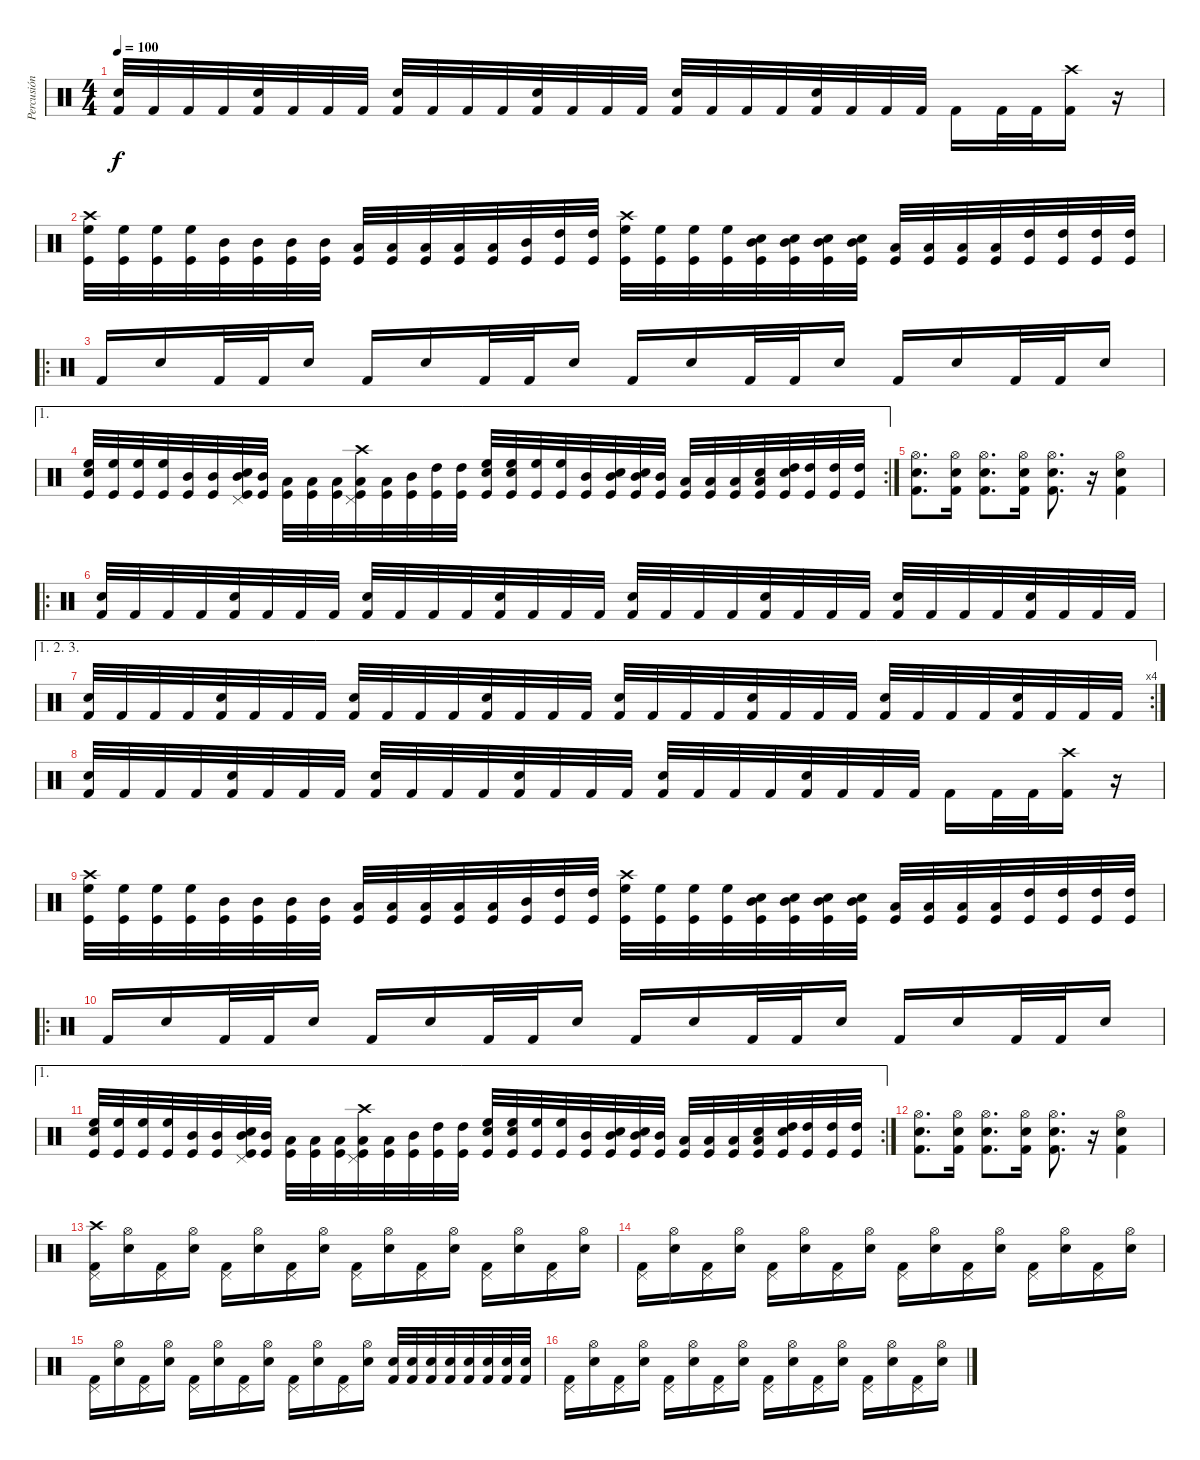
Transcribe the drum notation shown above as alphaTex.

\track ("Percusión" "Percusión") {instrument percussion}
\staff {score}
\articulation defaults
\ts (4 4)
\tempo 100
\clef neutral
\ks c
("Snare (hit) 2" "Kick (hit) 2").32{dy f} "Kick (hit) 2".32 "Kick (hit) 2".32 "Kick (hit) 2".32 ("Snare (hit) 2" "Kick (hit) 2").32 "Kick (hit) 2".32 "Kick (hit) 2".32 "Kick (hit) 2".32 ("Snare (hit) 2" "Kick (hit) 2").32 "Kick (hit) 2".32 "Kick (hit) 2".32 "Kick (hit) 2".32 ("Snare (hit) 2" "Kick (hit) 2").32 "Kick (hit) 2".32 "Kick (hit) 2".32 "Kick (hit) 2".32 ("Snare (hit) 2" "Kick (hit) 2").32 "Kick (hit) 2".32 "Kick (hit) 2".32 "Kick (hit) 2".32 ("Snare (hit) 2" "Kick (hit) 2").32 "Kick (hit) 2".32 "Kick (hit) 2".32 "Kick (hit) 2".32 "Kick (hit) 2".16 "Kick (hit) 2".32 "Kick (hit) 2".32 ("Crash high (hit)" "Kick (hit) 2").16 r.16 |
("Crash high (hit)" "Kick (hit)" "High Floor Tom (hit)").32 ("Kick (hit)" "High Floor Tom (hit)").32 ("Kick (hit)" "High Floor Tom (hit)").32 ("Kick (hit)" "High Floor Tom (hit)").32 ("Kick (hit)" "Mid Tom (hit)").32 ("Kick (hit)" "Mid Tom (hit)").32 ("Kick (hit)" "Mid Tom (hit)").32 ("Kick (hit)" "Mid Tom (hit)").32 ("Kick (hit)" "Low Tom (hit)").32 ("Kick (hit)" "Low Tom (hit)").32 ("Kick (hit)" "Low Tom (hit)").32 ("Kick (hit)" "Low Tom (hit)").32 ("Kick (hit)" "Low Tom (hit)").32 ("Kick (hit)" "Mid Tom (hit)").32 ("Kick (hit)" "High Tom (hit)").32 ("Kick (hit)" "High Tom (hit)").32 ("Crash high (hit)" "Kick (hit)" "High Floor Tom (hit)").32 ("Kick (hit)" "High Floor Tom (hit)").32 ("Kick (hit)" "High Floor Tom (hit)").32 ("Kick (hit)" "High Floor Tom (hit)").32 ("Snare (hit) 2" "Kick (hit)" "Mid Tom (hit)").32 ("Snare (hit) 2" "Kick (hit)" "Mid Tom (hit)").32 ("Snare (hit) 2" "Kick (hit)" "Mid Tom (hit)").32 ("Snare (hit) 2" "Kick (hit)" "Mid Tom (hit)").32 ("Kick (hit)" "Low Tom (hit)").32 ("Kick (hit)" "Low Tom (hit)").32 ("Kick (hit)" "Low Tom (hit)").32 ("Kick (hit)" "Low Tom (hit)").32 ("Kick (hit)" "High Tom (hit)").32 ("Kick (hit)" "High Tom (hit)").32 ("Kick (hit)" "High Tom (hit)").32 ("Kick (hit)" "High Tom (hit)").32 |
\ro "Kick (hit) 2".16 "Snare (hit) 2".16 "Kick (hit) 2".32 "Kick (hit) 2".32 "Snare (hit) 2".16 "Kick (hit) 2".16 "Snare (hit) 2".16 "Kick (hit) 2".32 "Kick (hit) 2".32 "Snare (hit) 2".16 "Kick (hit) 2".16 "Snare (hit) 2".16 "Kick (hit) 2".32 "Kick (hit) 2".32 "Snare (hit) 2".16 "Kick (hit) 2".16 "Snare (hit) 2".16 "Kick (hit) 2".32 "Kick (hit) 2".32 "Snare (hit) 2".16
|
\ae 1
\rc 2
("Kick (hit)" "Snare (hit) 2" "High Floor Tom (hit)").32{volume 16} ("Kick (hit)" "High Floor Tom (hit)").32 ("Kick (hit)" "High Floor Tom (hit)").32 ("Kick (hit)" "High Floor Tom (hit)").32 ("Kick (hit)" "Mid Tom (hit)").32 ("Kick (hit)" "Mid Tom (hit)").32 ("Kick (hit)" "Snare (hit) 2" "Pedal Hi-Hat (hit)" "Mid Tom (hit)").32 ("Kick (hit)" "Mid Tom (hit)").32 ("Kick (hit)" "Low Tom (hit)").32 ("Kick (hit)" "Low Tom (hit)").32 ("Kick (hit)" "Low Tom (hit)").32 ("Kick (hit)" "Crash high (hit)" "Pedal Hi-Hat (hit)" "Low Tom (hit)").32 ("Kick (hit)" "Low Tom (hit)").32 ("Kick (hit)" "Mid Tom (hit)").32 ("Kick (hit)" "High Tom (hit)").32 ("Kick (hit)" "High Tom (hit)").32 ("Snare (hit) 2" "Kick (hit)" "High Floor Tom (hit)").32 ("Snare (hit) 2" "Kick (hit)" "High Floor Tom (hit)").32 ("Kick (hit)" "High Floor Tom (hit)").32 ("Kick (hit)" "High Floor Tom (hit)").32 ("Kick (hit)" "Mid Tom (hit)").32 ("Snare (hit) 2" "Kick (hit)" "Mid Tom (hit)").32 ("Snare (hit) 2" "Kick (hit)" "Mid Tom (hit)").32 ("Kick (hit)" "Mid Tom (hit)").32 ("Kick (hit)" "Low Tom (hit)").32 ("Kick (hit)" "Low Tom (hit)").32 ("Kick (hit)" "Low Tom (hit)").32 ("Snare (hit) 2" "Kick (hit)" "Low Tom (hit)").32 ("Snare (hit) 2" "Kick (hit)" "High Tom (hit)").32 ("Kick (hit)" "High Tom (hit)").32 ("Kick (hit)" "High Tom (hit)").32 ("Kick (hit)" "High Tom (hit)").32 |
("Hi-Hat (open)" "Snare (hit) 2" "Kick (hit) 2").8{d} ("Hi-Hat (open)" "Snare (hit) 2" "Kick (hit) 2").16 ("Hi-Hat (open)" "Snare (hit) 2" "Kick (hit) 2").8{d} ("Hi-Hat (open)" "Snare (hit) 2" "Kick (hit) 2").16 ("Hi-Hat (open)" "Snare (hit) 2" "Kick (hit) 2").8{d} r.16 ("Hi-Hat (open)" "Snare (hit) 2" "Kick (hit) 2").4 |
\ro
("Snare (hit) 2" "Kick (hit) 2").32 "Kick (hit) 2".32 "Kick (hit) 2".32 "Kick (hit) 2".32 ("Snare (hit) 2" "Kick (hit) 2").32 "Kick (hit) 2".32 "Kick (hit) 2".32 "Kick (hit) 2".32 ("Snare (hit) 2" "Kick (hit) 2").32 "Kick (hit) 2".32 "Kick (hit) 2".32 "Kick (hit) 2".32 ("Snare (hit) 2" "Kick (hit) 2").32 "Kick (hit) 2".32 "Kick (hit) 2".32 "Kick (hit) 2".32 ("Snare (hit) 2" "Kick (hit) 2").32 "Kick (hit) 2".32 "Kick (hit) 2".32 "Kick (hit) 2".32 ("Snare (hit) 2" "Kick (hit) 2").32 "Kick (hit) 2".32 "Kick (hit) 2".32 "Kick (hit) 2".32 ("Snare (hit) 2" "Kick (hit) 2").32 "Kick (hit) 2".32 "Kick (hit) 2".32 "Kick (hit) 2".32 ("Snare (hit) 2" "Kick (hit) 2").32 "Kick (hit) 2".32 "Kick (hit) 2".32 "Kick (hit) 2".32 |
\ae (1 2 3)
\rc 4
("Snare (hit) 2" "Kick (hit) 2").32 "Kick (hit) 2".32 "Kick (hit) 2".32 "Kick (hit) 2".32 ("Snare (hit) 2" "Kick (hit) 2").32 "Kick (hit) 2".32 "Kick (hit) 2".32 "Kick (hit) 2".32 ("Snare (hit) 2" "Kick (hit) 2").32 "Kick (hit) 2".32 "Kick (hit) 2".32 "Kick (hit) 2".32 ("Snare (hit) 2" "Kick (hit) 2").32 "Kick (hit) 2".32 "Kick (hit) 2".32 "Kick (hit) 2".32 ("Snare (hit) 2" "Kick (hit) 2").32 "Kick (hit) 2".32 "Kick (hit) 2".32 "Kick (hit) 2".32 ("Snare (hit) 2" "Kick (hit) 2").32 "Kick (hit) 2".32 "Kick (hit) 2".32 "Kick (hit) 2".32 ("Snare (hit) 2" "Kick (hit) 2").32 "Kick (hit) 2".32 "Kick (hit) 2".32 "Kick (hit) 2".32 ("Snare (hit) 2" "Kick (hit) 2").32 "Kick (hit) 2".32 "Kick (hit) 2".32 "Kick (hit) 2".32 |
("Snare (hit) 2" "Kick (hit) 2").32 "Kick (hit) 2".32 "Kick (hit) 2".32 "Kick (hit) 2".32 ("Snare (hit) 2" "Kick (hit) 2").32 "Kick (hit) 2".32 "Kick (hit) 2".32 "Kick (hit) 2".32 ("Snare (hit) 2" "Kick (hit) 2").32 "Kick (hit) 2".32 "Kick (hit) 2".32 "Kick (hit) 2".32 ("Snare (hit) 2" "Kick (hit) 2").32 "Kick (hit) 2".32 "Kick (hit) 2".32 "Kick (hit) 2".32 ("Snare (hit) 2" "Kick (hit) 2").32 "Kick (hit) 2".32 "Kick (hit) 2".32 "Kick (hit) 2".32 ("Snare (hit) 2" "Kick (hit) 2").32 "Kick (hit) 2".32 "Kick (hit) 2".32 "Kick (hit) 2".32 "Kick (hit) 2".16 "Kick (hit) 2".32 "Kick (hit) 2".32 ("Crash high (hit)" "Kick (hit) 2").16 r.16 |
("Crash high (hit)" "Kick (hit)" "High Floor Tom (hit)").32 ("Kick (hit)" "High Floor Tom (hit)").32 ("Kick (hit)" "High Floor Tom (hit)").32 ("Kick (hit)" "High Floor Tom (hit)").32 ("Kick (hit)" "Mid Tom (hit)").32 ("Kick (hit)" "Mid Tom (hit)").32 ("Kick (hit)" "Mid Tom (hit)").32 ("Kick (hit)" "Mid Tom (hit)").32 ("Kick (hit)" "Low Tom (hit)").32 ("Kick (hit)" "Low Tom (hit)").32 ("Kick (hit)" "Low Tom (hit)").32 ("Kick (hit)" "Low Tom (hit)").32 ("Kick (hit)" "Low Tom (hit)").32 ("Kick (hit)" "Mid Tom (hit)").32 ("Kick (hit)" "High Tom (hit)").32 ("Kick (hit)" "High Tom (hit)").32 ("Crash high (hit)" "Kick (hit)" "High Floor Tom (hit)").32 ("Kick (hit)" "High Floor Tom (hit)").32 ("Kick (hit)" "High Floor Tom (hit)").32 ("Kick (hit)" "High Floor Tom (hit)").32 ("Snare (hit) 2" "Kick (hit)" "Mid Tom (hit)").32 ("Snare (hit) 2" "Kick (hit)" "Mid Tom (hit)").32 ("Snare (hit) 2" "Kick (hit)" "Mid Tom (hit)").32 ("Snare (hit) 2" "Kick (hit)" "Mid Tom (hit)").32 ("Kick (hit)" "Low Tom (hit)").32 ("Kick (hit)" "Low Tom (hit)").32 ("Kick (hit)" "Low Tom (hit)").32 ("Kick (hit)" "Low Tom (hit)").32 ("Kick (hit)" "High Tom (hit)").32 ("Kick (hit)" "High Tom (hit)").32 ("Kick (hit)" "High Tom (hit)").32 ("Kick (hit)" "High Tom (hit)").32 |
\ro "Kick (hit) 2".16 "Snare (hit) 2".16 "Kick (hit) 2".32 "Kick (hit) 2".32 "Snare (hit) 2".16 "Kick (hit) 2".16 "Snare (hit) 2".16 "Kick (hit) 2".32 "Kick (hit) 2".32 "Snare (hit) 2".16 "Kick (hit) 2".16 "Snare (hit) 2".16 "Kick (hit) 2".32 "Kick (hit) 2".32 "Snare (hit) 2".16 "Kick (hit) 2".16 "Snare (hit) 2".16 "Kick (hit) 2".32 "Kick (hit) 2".32 "Snare (hit) 2".16
|
\ae 1
\rc 2
("Kick (hit)" "Snare (hit) 2" "High Floor Tom (hit)").32{volume 16} ("Kick (hit)" "High Floor Tom (hit)").32 ("Kick (hit)" "High Floor Tom (hit)").32 ("Kick (hit)" "High Floor Tom (hit)").32 ("Kick (hit)" "Mid Tom (hit)").32 ("Kick (hit)" "Mid Tom (hit)").32 ("Kick (hit)" "Snare (hit) 2" "Pedal Hi-Hat (hit)" "Mid Tom (hit)").32 ("Kick (hit)" "Mid Tom (hit)").32 ("Kick (hit)" "Low Tom (hit)").32 ("Kick (hit)" "Low Tom (hit)").32 ("Kick (hit)" "Low Tom (hit)").32 ("Kick (hit)" "Crash high (hit)" "Pedal Hi-Hat (hit)" "Low Tom (hit)").32 ("Kick (hit)" "Low Tom (hit)").32 ("Kick (hit)" "Mid Tom (hit)").32 ("Kick (hit)" "High Tom (hit)").32 ("Kick (hit)" "High Tom (hit)").32 ("Snare (hit) 2" "Kick (hit)" "High Floor Tom (hit)").32 ("Snare (hit) 2" "Kick (hit)" "High Floor Tom (hit)").32 ("Kick (hit)" "High Floor Tom (hit)").32 ("Kick (hit)" "High Floor Tom (hit)").32 ("Kick (hit)" "Mid Tom (hit)").32 ("Snare (hit) 2" "Kick (hit)" "Mid Tom (hit)").32 ("Snare (hit) 2" "Kick (hit)" "Mid Tom (hit)").32 ("Kick (hit)" "Mid Tom (hit)").32 ("Kick (hit)" "Low Tom (hit)").32 ("Kick (hit)" "Low Tom (hit)").32 ("Kick (hit)" "Low Tom (hit)").32 ("Snare (hit) 2" "Kick (hit)" "Low Tom (hit)").32 ("Snare (hit) 2" "Kick (hit)" "High Tom (hit)").32 ("Kick (hit)" "High Tom (hit)").32 ("Kick (hit)" "High Tom (hit)").32 ("Kick (hit)" "High Tom (hit)").32 |
("Hi-Hat (open)" "Snare (hit) 2" "Kick (hit) 2").8{d} ("Hi-Hat (open)" "Snare (hit) 2" "Kick (hit) 2").16 ("Hi-Hat (open)" "Snare (hit) 2" "Kick (hit) 2").8{d} ("Hi-Hat (open)" "Snare (hit) 2" "Kick (hit) 2").16 ("Hi-Hat (open)" "Snare (hit) 2" "Kick (hit) 2").8{d} r.16 ("Hi-Hat (open)" "Snare (hit) 2" "Kick (hit) 2").4 |
("Crash high (hit)" "Kick (hit) 2" "Pedal Hi-Hat (hit)").16 ("Snare (hit) 2" "Hi-Hat (open)").16 ("Kick (hit) 2" "Pedal Hi-Hat (hit)").16 ("Snare (hit) 2" "Hi-Hat (open)").16 ("Kick (hit) 2" "Pedal Hi-Hat (hit)").16 ("Snare (hit) 2" "Hi-Hat (open)").16 ("Kick (hit) 2" "Pedal Hi-Hat (hit)").16 ("Snare (hit) 2" "Hi-Hat (open)").16 ("Kick (hit) 2" "Pedal Hi-Hat (hit)").16 ("Snare (hit) 2" "Hi-Hat (open)").16 ("Kick (hit) 2" "Pedal Hi-Hat (hit)").16 ("Snare (hit) 2" "Hi-Hat (open)").16 ("Kick (hit) 2" "Pedal Hi-Hat (hit)").16 ("Snare (hit) 2" "Hi-Hat (open)").16 ("Kick (hit) 2" "Pedal Hi-Hat (hit)").16 ("Snare (hit) 2" "Hi-Hat (open)").16 |
("Kick (hit) 2" "Pedal Hi-Hat (hit)").16 ("Snare (hit) 2" "Hi-Hat (open)").16 ("Kick (hit) 2" "Pedal Hi-Hat (hit)").16 ("Snare (hit) 2" "Hi-Hat (open)").16 ("Kick (hit) 2" "Pedal Hi-Hat (hit)").16 ("Snare (hit) 2" "Hi-Hat (open)").16 ("Kick (hit) 2" "Pedal Hi-Hat (hit)").16 ("Snare (hit) 2" "Hi-Hat (open)").16 ("Kick (hit) 2" "Pedal Hi-Hat (hit)").16 ("Snare (hit) 2" "Hi-Hat (open)").16 ("Kick (hit) 2" "Pedal Hi-Hat (hit)").16 ("Snare (hit) 2" "Hi-Hat (open)").16 ("Kick (hit) 2" "Pedal Hi-Hat (hit)").16 ("Snare (hit) 2" "Hi-Hat (open)").16 ("Kick (hit) 2" "Pedal Hi-Hat (hit)").16 ("Snare (hit) 2" "Hi-Hat (open)").16 |
("Kick (hit) 2" "Pedal Hi-Hat (hit)").16 ("Snare (hit) 2" "Hi-Hat (open)").16 ("Kick (hit) 2" "Pedal Hi-Hat (hit)").16 ("Snare (hit) 2" "Hi-Hat (open)").16 ("Kick (hit) 2" "Pedal Hi-Hat (hit)").16 ("Snare (hit) 2" "Hi-Hat (open)").16 ("Kick (hit) 2" "Pedal Hi-Hat (hit)").16 ("Snare (hit) 2" "Hi-Hat (open)").16 ("Kick (hit) 2" "Pedal Hi-Hat (hit)").16 ("Snare (hit) 2" "Hi-Hat (open)").16 ("Kick (hit) 2" "Pedal Hi-Hat (hit)").16 ("Snare (hit) 2" "Hi-Hat (open)").16 ("Snare (hit) 2" "Kick (hit) 2").32 ("Snare (hit) 2" "Kick (hit) 2").32 ("Snare (hit) 2" "Kick (hit) 2").32 ("Snare (hit) 2" "Kick (hit) 2").32 ("Snare (hit) 2" "Kick (hit) 2").32 ("Snare (hit) 2" "Kick (hit) 2").32 ("Snare (hit) 2" "Kick (hit) 2").32 ("Snare (hit) 2" "Kick (hit) 2").32 |
("Kick (hit) 2" "Pedal Hi-Hat (hit)").16 ("Snare (hit) 2" "Hi-Hat (open)").16 ("Kick (hit) 2" "Pedal Hi-Hat (hit)").16 ("Snare (hit) 2" "Hi-Hat (open)").16 ("Kick (hit) 2" "Pedal Hi-Hat (hit)").16 ("Snare (hit) 2" "Hi-Hat (open)").16 ("Kick (hit) 2" "Pedal Hi-Hat (hit)").16 ("Snare (hit) 2" "Hi-Hat (open)").16 ("Kick (hit) 2" "Pedal Hi-Hat (hit)").16 ("Snare (hit) 2" "Hi-Hat (open)").16 ("Kick (hit) 2" "Pedal Hi-Hat (hit)").16 ("Snare (hit) 2" "Hi-Hat (open)").16 ("Kick (hit) 2" "Pedal Hi-Hat (hit)").16 ("Snare (hit) 2" "Hi-Hat (open)").16 ("Kick (hit) 2" "Pedal Hi-Hat (hit)").16 ("Snare (hit) 2" "Hi-Hat (open)").16
